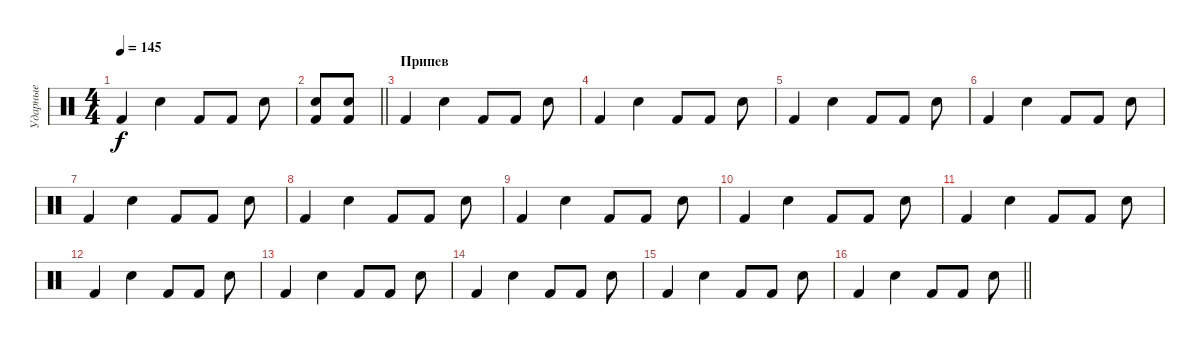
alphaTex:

\track ("Ударные" "Ударные") {instrument percussion}
\staff {score}
\articulation defaults
\ts (4 4)
\tempo 145
\clef neutral
\ks c "Kick (hit) 2".4{dy f} "Snare (hit) 2".4 "Kick (hit) 2".8 "Kick (hit) 2".8 "Snare (hit) 2".8
|
\barLineRight lightlight
("Kick (hit) 2" "Snare (hit) 2").8 ("Kick (hit) 2" "Snare (hit) 2").8 |
\section ("" "Припев")
"Kick (hit) 2".4 "Snare (hit) 2".4 "Kick (hit) 2".8 "Kick (hit) 2".8 "Snare (hit) 2".8 |
"Kick (hit) 2".4 "Snare (hit) 2".4 "Kick (hit) 2".8 "Kick (hit) 2".8 "Snare (hit) 2".8 |
"Kick (hit) 2".4 "Snare (hit) 2".4 "Kick (hit) 2".8 "Kick (hit) 2".8 "Snare (hit) 2".8 |
"Kick (hit) 2".4 "Snare (hit) 2".4 "Kick (hit) 2".8 "Kick (hit) 2".8 "Snare (hit) 2".8 |
"Kick (hit) 2".4 "Snare (hit) 2".4 "Kick (hit) 2".8 "Kick (hit) 2".8 "Snare (hit) 2".8 |
"Kick (hit) 2".4 "Snare (hit) 2".4 "Kick (hit) 2".8 "Kick (hit) 2".8 "Snare (hit) 2".8 |
"Kick (hit) 2".4 "Snare (hit) 2".4 "Kick (hit) 2".8 "Kick (hit) 2".8 "Snare (hit) 2".8 |
"Kick (hit) 2".4 "Snare (hit) 2".4 "Kick (hit) 2".8 "Kick (hit) 2".8 "Snare (hit) 2".8 |
"Kick (hit) 2".4 "Snare (hit) 2".4 "Kick (hit) 2".8 "Kick (hit) 2".8 "Snare (hit) 2".8 |
"Kick (hit) 2".4 "Snare (hit) 2".4 "Kick (hit) 2".8 "Kick (hit) 2".8 "Snare (hit) 2".8 |
"Kick (hit) 2".4 "Snare (hit) 2".4 "Kick (hit) 2".8 "Kick (hit) 2".8 "Snare (hit) 2".8 |
"Kick (hit) 2".4 "Snare (hit) 2".4 "Kick (hit) 2".8 "Kick (hit) 2".8 "Snare (hit) 2".8 |
"Kick (hit) 2".4 "Snare (hit) 2".4 "Kick (hit) 2".8 "Kick (hit) 2".8 "Snare (hit) 2".8 |
\barLineRight lightlight "Kick (hit) 2".4 "Snare (hit) 2".4 "Kick (hit) 2".8 "Kick (hit) 2".8 "Snare (hit) 2".8
